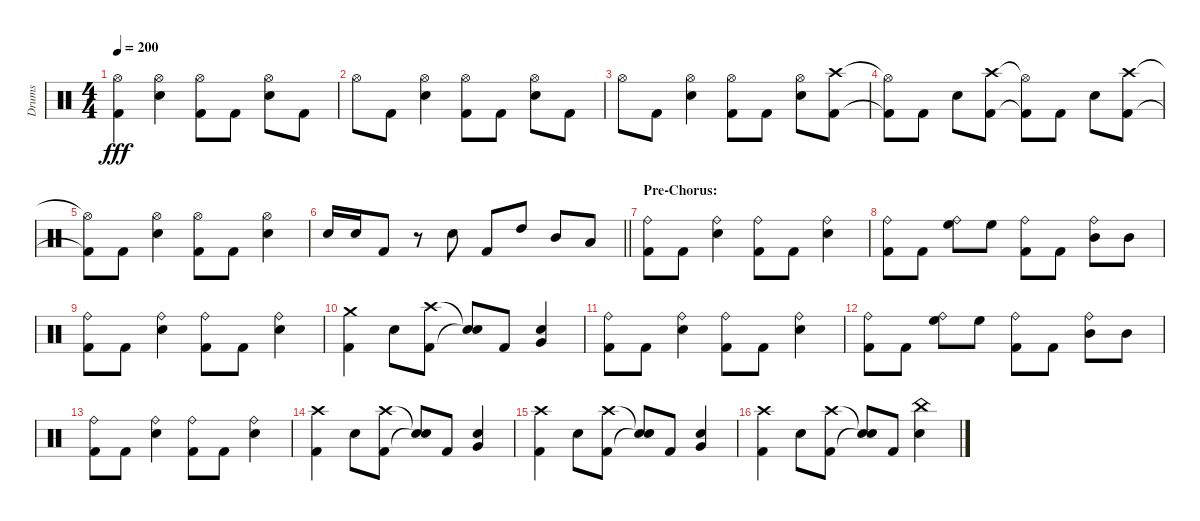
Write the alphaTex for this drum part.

\track ("Drums" "Drums") {instrument percussion}
\staff {score}
\articulation defaults
\ts (4 4)
\tempo 200
\clef neutral
\ks c
("Hi-Hat (open)" "Kick (hit) 2").4{dy fff} ("Hi-Hat (open)" "Electric Snare (hit)").4 ("Hi-Hat (open)" "Kick (hit) 2").8 "Kick (hit) 2".8 ("Hi-Hat (open)" "Electric Snare (hit)").8 "Kick (hit) 2".8 |
"Hi-Hat (open)".8 "Kick (hit) 2".8 ("Hi-Hat (open)" "Electric Snare (hit)").4 ("Hi-Hat (open)" "Kick (hit) 2").8 "Kick (hit) 2".8 ("Hi-Hat (open)" "Electric Snare (hit)").8 "Kick (hit) 2".8 |
"Hi-Hat (open)".8 "Kick (hit) 2".8 ("Hi-Hat (open)" "Electric Snare (hit)").4 ("Hi-Hat (open)" "Kick (hit) 2").8 "Kick (hit) 2".8 ("Hi-Hat (open)" "Electric Snare (hit)").8 ("Crash high (hit)" "Kick (hit) 2").8 |
("Hi-Hat (open)"{t} "Kick (hit) 2"{t}).8 "Kick (hit) 2".8 "Electric Snare (hit)".8 ("Crash high (hit)" "Kick (hit) 2").8 ("Hi-Hat (open)"{t} "Kick (hit) 2"{t}).8 "Kick (hit) 2".8 "Electric Snare (hit)".8 ("Crash high (hit)" "Kick (hit) 2").8 |
("Hi-Hat (open)"{t} "Kick (hit) 2"{t}).8 "Kick (hit) 2".8 ("Hi-Hat (open)" "Electric Snare (hit)").4 ("Hi-Hat (open)" "Kick (hit) 2").8 "Kick (hit) 2".8 ("Hi-Hat (open)" "Electric Snare (hit)").4 |
\barLineRight lightlight "Electric Snare (hit)".16 "Electric Snare (hit)".16 "Kick (hit) 2".8
r.8 "Electric Snare (hit)".8 "Kick (hit) 2".8 "High Tom (hit)".8 "Mid Tom (hit)".8 "Low Tom (hit)".8 |
\section ("" "Pre-Chorus:")
("Ride (bell)" "Kick (hit) 2").8 "Kick (hit) 2".8 ("Ride (bell)" "Electric Snare (hit)").4 ("Ride (bell)" "Kick (hit) 2").8 "Kick (hit) 2".8 ("Ride (bell)" "Electric Snare (hit)").4 |
("Ride (bell)" "Kick (hit) 2").8 "Kick (hit) 2".8 ("Ride (bell)" "High Floor Tom (hit)").8 "High Floor Tom (hit)".8 ("Ride (bell)" "Kick (hit) 2").8 "Kick (hit) 2".8 ("Ride (bell)" "Mid Tom (hit)").8 "Mid Tom (hit)".8 |
("Ride (bell)" "Kick (hit) 2").8 "Kick (hit) 2".8 ("Ride (bell)" "Electric Snare (hit)").4 ("Ride (bell)" "Kick (hit) 2").8 "Kick (hit) 2".8 ("Ride (bell)" "Electric Snare (hit)").4 |
("Crash medium (hit)" "Kick (hit) 2").4 "Electric Snare (hit)".8 ("Crash high (hit)" "Kick (hit) 2").8 ("Snare (hit)"{t} "Snare (hit)"{t}).8 "Kick (hit) 2".8 ("Electric Snare (hit)" "Very Low Tom (hit)").4 |
("Ride (bell)" "Kick (hit) 2").8 "Kick (hit) 2".8 ("Ride (bell)" "Electric Snare (hit)").4 ("Ride (bell)" "Kick (hit) 2").8 "Kick (hit) 2".8 ("Ride (bell)" "Electric Snare (hit)").4 |
("Ride (bell)" "Kick (hit) 2").8 "Kick (hit) 2".8 ("Ride (bell)" "High Floor Tom (hit)").8 "High Floor Tom (hit)".8 ("Ride (bell)" "Kick (hit) 2").8 "Kick (hit) 2".8 ("Ride (bell)" "Mid Tom (hit)").8 "Mid Tom (hit)".8 |
("Ride (bell)" "Kick (hit) 2").8 "Kick (hit) 2".8 ("Ride (bell)" "Electric Snare (hit)").4 ("Ride (bell)" "Kick (hit) 2").8 "Kick (hit) 2".8 ("Ride (bell)" "Electric Snare (hit)").4 |
("Crash high (hit)" "Kick (hit) 2").4 "Electric Snare (hit)".8 ("Crash high (hit)" "Kick (hit) 2").8 ("Snare (hit)"{t} "Snare (hit)"{t}).8 "Kick (hit) 2".8 ("Electric Snare (hit)" "Very Low Tom (hit)").4 |
("Crash high (hit)" "Kick (hit) 2").4 "Electric Snare (hit)".8 ("Crash high (hit)" "Kick (hit) 2").8 ("Snare (hit)"{t} "Snare (hit)"{t}).8 "Kick (hit) 2".8 ("Electric Snare (hit)" "Very Low Tom (hit)").4 |
("Crash high (hit)" "Kick (hit) 2").4 "Electric Snare (hit)".8 ("Crash high (hit)" "Kick (hit) 2").8 ("Snare (hit)"{t} "Snare (hit)"{t}).8 "Kick (hit) 2".8 ("China (hit)" "Electric Snare (hit)").4
